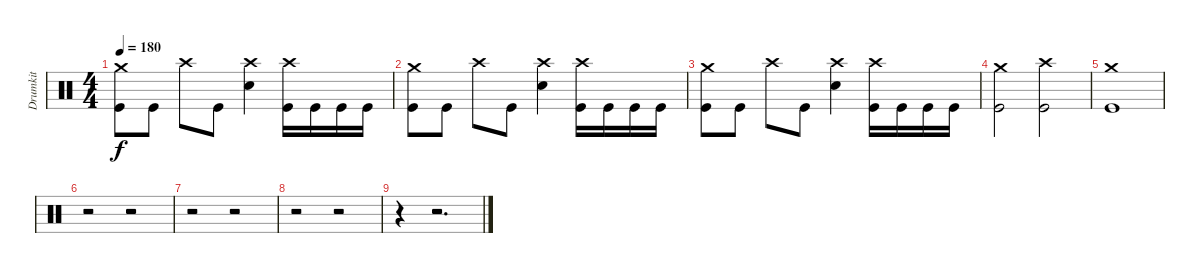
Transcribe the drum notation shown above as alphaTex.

\track ("Drumkit" "Drumkit") {instrument percussion}
\staff {score}
\articulation defaults
\ts (4 4)
\tempo 180
\clef neutral
\ks c
("Crash medium (hit)" "Kick (hit)").8{dy f} "Kick (hit)".8 "Crash high (hit)".8 "Kick (hit)".8 ("Crash high (hit)" "Snare (hit) 2").4 ("Crash high (hit)" "Kick (hit)").16 "Kick (hit)".16 "Kick (hit)".16 "Kick (hit)".16 |
("Crash medium (hit)" "Kick (hit)").8 "Kick (hit)".8 "Crash high (hit)".8 "Kick (hit)".8 ("Crash high (hit)" "Snare (hit) 2").4 ("Crash high (hit)" "Kick (hit)").16 "Kick (hit)".16 "Kick (hit)".16 "Kick (hit)".16 |
("Crash medium (hit)" "Kick (hit)").8 "Kick (hit)".8 "Crash high (hit)".8 "Kick (hit)".8 ("Crash high (hit)" "Snare (hit) 2").4 ("Crash high (hit)" "Kick (hit)").16 "Kick (hit)".16 "Kick (hit)".16 "Kick (hit)".16 |
("Crash medium (hit)" "Kick (hit)").2 ("Crash high (hit)" "Kick (hit)").2 |
("Crash medium (hit)" "Kick (hit)").1 |
r.2 r.2 |
r.2 r.2 |
r.2 r.2 |
r.4 r.2{d}
